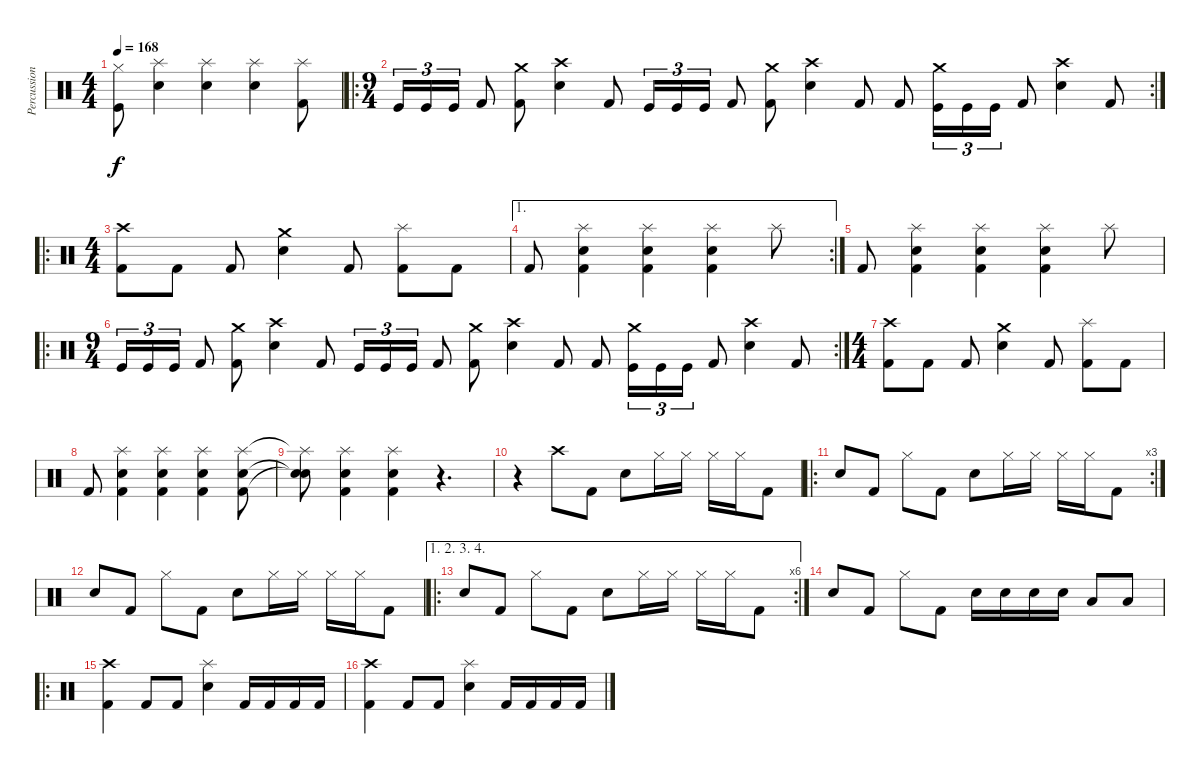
\track ("Percussion" "Percussion") {instrument percussion}
\staff {score}
\articulation defaults
\ts (4 4)
\tempo 168
\clef neutral
\ks c
("Hi-Hat (closed)" "Kick (hit)").8{dy f} ("Splash (hit)" "Electric Snare (hit)").4 ("Splash (hit)" "Electric Snare (hit)").4 ("Splash (hit)" "Electric Snare (hit)").4 ("Splash (hit)" "Kick (hit) 2").8 |
\ro
\rc 2
\ts (9 4)
"Kick (hit)".16{tu (3 2)} "Kick (hit)".16{tu (3 2)} "Kick (hit)".16{tu (3 2)} "Kick (hit) 2".8 ("Crash medium (hit)" "Kick (hit) 2").8 ("Crash high (hit)" "Electric Snare (hit)").4 "Kick (hit) 2".8 "Kick (hit)".16{tu (3 2)} "Kick (hit)".16{tu (3 2)} "Kick (hit)".16{tu (3 2)} "Kick (hit) 2".8 ("Crash medium (hit)" "Kick (hit) 2").8 ("Crash high (hit)" "Electric Snare (hit)").4 "Kick (hit) 2".8 "Kick (hit) 2".8 ("Crash medium (hit)" "Kick (hit)").16{tu (3 2)} "Kick (hit)".16{tu (3 2)} "Kick (hit)".16{tu (3 2)} "Kick (hit) 2".8 ("Crash high (hit)" "Electric Snare (hit)").4 "Kick (hit) 2".8 |
\ro
\ts (4 4)
("Crash high (hit)" "Kick (hit) 2").8 "Kick (hit) 2".8 "Kick (hit) 2".8 ("Crash medium (hit)" "Electric Snare (hit)").4 "Kick (hit) 2".8 ("Splash (hit)" "Kick (hit) 2").8 "Kick (hit) 2".8 |
\ae 1
\rc 2 "Kick (hit) 2".8
("Splash (hit)" "Electric Snare (hit)" "Kick (hit) 2").4 ("Splash (hit)" "Electric Snare (hit)" "Kick (hit) 2").4 ("Splash (hit)" "Electric Snare (hit)" "Kick (hit) 2").4 "Splash (hit)".8 |
"Kick (hit) 2".8 ("Splash (hit)" "Electric Snare (hit)" "Kick (hit) 2").4 ("Splash (hit)" "Electric Snare (hit)" "Kick (hit) 2").4 ("Splash (hit)" "Electric Snare (hit)" "Kick (hit) 2").4 "Splash (hit)".8 |
\ro
\rc 2
\ts (9 4)
"Kick (hit)".16{tu (3 2)} "Kick (hit)".16{tu (3 2)} "Kick (hit)".16{tu (3 2)} "Kick (hit) 2".8 ("Crash medium (hit)" "Kick (hit) 2").8 ("Crash high (hit)" "Electric Snare (hit)").4 "Kick (hit) 2".8 "Kick (hit)".16{tu (3 2)} "Kick (hit)".16{tu (3 2)} "Kick (hit)".16{tu (3 2)} "Kick (hit) 2".8 ("Crash medium (hit)" "Kick (hit) 2").8 ("Crash high (hit)" "Electric Snare (hit)").4 "Kick (hit) 2".8 "Kick (hit) 2".8 ("Crash medium (hit)" "Kick (hit)").16{tu (3 2)} "Kick (hit)".16{tu (3 2)} "Kick (hit)".16{tu (3 2)} "Kick (hit) 2".8 ("Crash high (hit)" "Electric Snare (hit)").4 "Kick (hit) 2".8 |
\ts (4 4)
("Crash high (hit)" "Kick (hit) 2").8 "Kick (hit) 2".8 "Kick (hit) 2".8 ("Crash medium (hit)" "Electric Snare (hit)").4 "Kick (hit) 2".8 ("Splash (hit)" "Kick (hit) 2").8 "Kick (hit) 2".8 |
"Kick (hit) 2".8 ("Splash (hit)" "Electric Snare (hit)" "Kick (hit) 2").4 ("Splash (hit)" "Electric Snare (hit)" "Kick (hit) 2").4 ("Splash (hit)" "Electric Snare (hit)" "Kick (hit) 2").4 ("Splash (hit)" "Electric Snare (hit)" "Kick (hit) 2").8 |
("Splash (hit)"{t} "Snare (hit)"{t} "Snare (hit)"{t}).8 ("Splash (hit)" "Electric Snare (hit)" "Kick (hit) 2").4 ("Splash (hit)" "Electric Snare (hit)" "Kick (hit) 2").4 r.4{d} |
r.4 "Crash high (hit)".8 "Kick (hit) 2".8 "Electric Snare (hit)".8 "Hi-Hat (closed)".16 "Hi-Hat (closed)".16 "Hi-Hat (closed)".16 "Hi-Hat (closed)".16 "Kick (hit) 2".8 |
\ro
\rc 3 "Electric Snare (hit)".8 "Kick (hit) 2".8 "Hi-Hat (closed)".8 "Kick (hit) 2".8 "Electric Snare (hit)".8 "Hi-Hat (closed)".16 "Hi-Hat (closed)".16 "Hi-Hat (closed)".16 "Hi-Hat (closed)".16 "Kick (hit) 2".8
|
"Electric Snare (hit)".8 "Kick (hit) 2".8 "Hi-Hat (closed)".8 "Kick (hit) 2".8 "Electric Snare (hit)".8 "Hi-Hat (closed)".16 "Hi-Hat (closed)".16 "Hi-Hat (closed)".16 "Hi-Hat (closed)".16 "Kick (hit) 2".8 |
\ae (1 2 3 4)
\ro
\rc 6 "Electric Snare (hit)".8 "Kick (hit) 2".8 "Hi-Hat (closed)".8 "Kick (hit) 2".8 "Electric Snare (hit)".8 "Hi-Hat (closed)".16 "Hi-Hat (closed)".16 "Hi-Hat (closed)".16 "Hi-Hat (closed)".16 "Kick (hit) 2".8
|
"Electric Snare (hit)".8 "Kick (hit) 2".8 "Hi-Hat (closed)".8 "Kick (hit) 2".8 "Electric Snare (hit)".16 "Electric Snare (hit)".16 "Electric Snare (hit)".16 "Electric Snare (hit)".16 "Low Floor Tom (hit)".8 "Low Floor Tom (hit)".8 |
\ro
("Crash high (hit)" "Kick (hit) 2").4 "Kick (hit) 2".8 "Kick (hit) 2".8 ("Splash (hit)" "Electric Snare (hit)").4 "Kick (hit) 2".16 "Kick (hit) 2".16 "Kick (hit) 2".16 "Kick (hit) 2".16 |
("Crash high (hit)" "Kick (hit) 2").4 "Kick (hit) 2".8 "Kick (hit) 2".8 ("Splash (hit)" "Electric Snare (hit)").4 "Kick (hit) 2".16 "Kick (hit) 2".16 "Kick (hit) 2".16 "Kick (hit) 2".16
